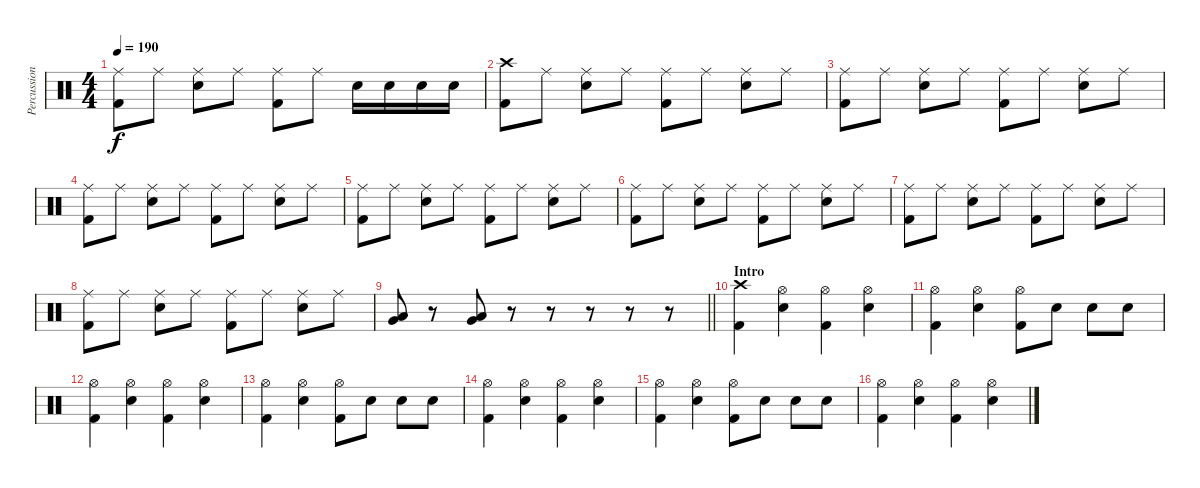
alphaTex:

\track ("Percussion" "Percussion") {instrument percussion}
\staff {score}
\articulation defaults
\ts (4 4)
\tempo 190
\clef neutral
\ks c
("Kick (hit) 2" "Ride (middle)").8{dy f} "Ride (middle)".8 ("Ride (middle)" "Snare (hit) 2").8 "Ride (middle)".8 ("Kick (hit) 2" "Ride (middle)").8 "Ride (middle)".8 "Snare (hit) 2".16 "Snare (hit) 2".16 "Snare (hit) 2".16 "Snare (hit) 2".16 |
("Kick (hit) 2" "Crash high (hit)").8 "Ride (middle)".8 ("Ride (middle)" "Snare (hit) 2").8 "Ride (middle)".8 ("Kick (hit) 2" "Ride (middle)").8 "Ride (middle)".8 ("Ride (middle)" "Snare (hit) 2").8 "Ride (middle)".8 |
("Kick (hit) 2" "Ride (middle)").8 "Ride (middle)".8 ("Ride (middle)" "Snare (hit) 2").8 "Ride (middle)".8 ("Kick (hit) 2" "Ride (middle)").8 "Ride (middle)".8 ("Ride (middle)" "Snare (hit) 2").8 "Ride (middle)".8 |
("Kick (hit) 2" "Ride (middle)").8 "Ride (middle)".8 ("Ride (middle)" "Snare (hit) 2").8 "Ride (middle)".8 ("Kick (hit) 2" "Ride (middle)").8 "Ride (middle)".8 ("Ride (middle)" "Snare (hit) 2").8 "Ride (middle)".8 |
("Kick (hit) 2" "Ride (middle)").8 "Ride (middle)".8 ("Ride (middle)" "Snare (hit) 2").8 "Ride (middle)".8 ("Kick (hit) 2" "Ride (middle)").8 "Ride (middle)".8 ("Ride (middle)" "Snare (hit) 2").8 "Ride (middle)".8 |
("Kick (hit) 2" "Ride (middle)").8 "Ride (middle)".8 ("Ride (middle)" "Snare (hit) 2").8 "Ride (middle)".8 ("Kick (hit) 2" "Ride (middle)").8 "Ride (middle)".8 ("Ride (middle)" "Snare (hit) 2").8 "Ride (middle)".8 |
("Kick (hit) 2" "Ride (middle)").8 "Ride (middle)".8 ("Ride (middle)" "Snare (hit) 2").8 "Ride (middle)".8 ("Kick (hit) 2" "Ride (middle)").8 "Ride (middle)".8 ("Ride (middle)" "Snare (hit) 2").8 "Ride (middle)".8 |
("Kick (hit) 2" "Ride (middle)").8 "Ride (middle)".8 ("Ride (middle)" "Snare (hit) 2").8 "Ride (middle)".8 ("Kick (hit) 2" "Ride (middle)").8 "Ride (middle)".8 ("Ride (middle)" "Snare (hit) 2").8 "Ride (middle)".8 |
\barLineRight lightlight
("Very Low Tom (hit)" "Low Floor Tom (hit)").8 r.8 ("Very Low Tom (hit)" "Low Floor Tom (hit)").8 r.8 r.8 r.8 r.8 r.8 |
\section ("" "Intro")
("Kick (hit) 2" "Crash high (hit)").4 ("Hi-Hat (open)" "Snare (hit) 2").4 ("Kick (hit) 2" "Hi-Hat (open)").4 ("Hi-Hat (open)" "Snare (hit) 2").4 |
("Kick (hit) 2" "Hi-Hat (open)").4 ("Hi-Hat (open)" "Snare (hit) 2").4 ("Kick (hit) 2" "Hi-Hat (open)").8 "Snare (hit) 2".8 "Snare (hit) 2".8 "Snare (hit) 2".8 |
("Kick (hit) 2" "Hi-Hat (open)").4 ("Hi-Hat (open)" "Snare (hit) 2").4 ("Kick (hit) 2" "Hi-Hat (open)").4 ("Hi-Hat (open)" "Snare (hit) 2").4 |
("Kick (hit) 2" "Hi-Hat (open)").4 ("Hi-Hat (open)" "Snare (hit) 2").4 ("Kick (hit) 2" "Hi-Hat (open)").8 "Snare (hit) 2".8 "Snare (hit) 2".8 "Snare (hit) 2".8 |
("Kick (hit) 2" "Hi-Hat (open)").4 ("Hi-Hat (open)" "Snare (hit) 2").4 ("Kick (hit) 2" "Hi-Hat (open)").4 ("Hi-Hat (open)" "Snare (hit) 2").4 |
("Kick (hit) 2" "Hi-Hat (open)").4 ("Hi-Hat (open)" "Snare (hit) 2").4 ("Kick (hit) 2" "Hi-Hat (open)").8 "Snare (hit) 2".8 "Snare (hit) 2".8 "Snare (hit) 2".8 |
("Kick (hit) 2" "Hi-Hat (open)").4 ("Hi-Hat (open)" "Snare (hit) 2").4 ("Kick (hit) 2" "Hi-Hat (open)").4 ("Hi-Hat (open)" "Snare (hit) 2").4
